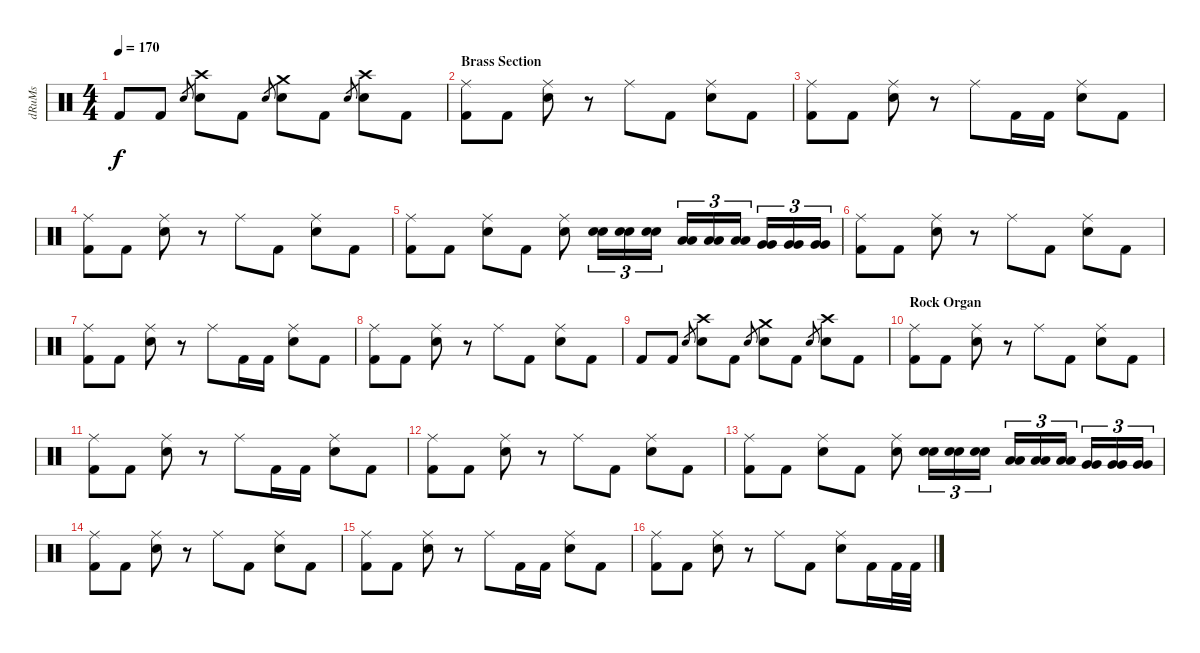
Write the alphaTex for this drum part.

\track ("dRuMs" "dRuMs") {instrument percussion}
\staff {score}
\articulation defaults
\ts (4 4)
\tempo 170
\clef neutral
\ks c "Kick (hit) 2".8{dy f} "Kick (hit) 2".8 "Electric Snare (hit)".8{gr}
("Crash high (hit)" "Electric Snare (hit)").8 "Kick (hit) 2".8 "Electric Snare (hit)".8{gr} ("Crash medium (hit)" "Electric Snare (hit)").8 "Kick (hit) 2".8 "Electric Snare (hit)".8{gr} ("Crash high (hit)" "Electric Snare (hit)").8 "Kick (hit) 2".8 |
\section ("" "Brass Section")
("Ride (middle)" "Kick (hit) 2").8 "Kick (hit) 2".8 ("Ride (middle)" "Electric Snare (hit)").8 r.8 "Ride (middle)".8 "Kick (hit) 2".8 ("Ride (middle)" "Electric Snare (hit)").8 "Kick (hit) 2".8 |
("Ride (middle)" "Kick (hit) 2").8 "Kick (hit) 2".8 ("Ride (middle)" "Electric Snare (hit)").8 r.8 "Ride (middle)".8 "Kick (hit) 2".16 "Kick (hit) 2".16 ("Ride (middle)" "Electric Snare (hit)").8 "Kick (hit) 2".8 |
("Ride (middle)" "Kick (hit) 2").8 "Kick (hit) 2".8 ("Ride (middle)" "Electric Snare (hit)").8 r.8 "Ride (middle)".8 "Kick (hit) 2".8 ("Ride (middle)" "Electric Snare (hit)").8 "Kick (hit) 2".8 |
("Ride (middle)" "Kick (hit) 2").8 "Kick (hit) 2".8 ("Ride (middle)" "Electric Snare (hit)").8 "Kick (hit) 2".8 ("Ride (middle)" "Electric Snare (hit)").8 ("Electric Snare (hit)" "Electric Snare (hit)").16{tu (3 2)} ("Electric Snare (hit)" "Electric Snare (hit)").16{tu (3 2)} ("Electric Snare (hit)" "Electric Snare (hit)").16{tu (3 2)} ("Low Tom (hit)" "Low Tom (hit)").16{tu (3 2)} ("Low Tom (hit)" "Low Tom (hit)").16{tu (3 2)} ("Low Tom (hit)" "Low Tom (hit)").16{tu (3 2)} ("Very Low Tom (hit)" "Very Low Tom (hit)").16{tu (3 2)} ("Very Low Tom (hit)" "Very Low Tom (hit)").16{tu (3 2)} ("Very Low Tom (hit)" "Very Low Tom (hit)").16{tu (3 2)} |
("Ride (middle)" "Kick (hit) 2").8 "Kick (hit) 2".8 ("Ride (middle)" "Electric Snare (hit)").8 r.8 "Ride (middle)".8 "Kick (hit) 2".8 ("Ride (middle)" "Electric Snare (hit)").8 "Kick (hit) 2".8 |
("Ride (middle)" "Kick (hit) 2").8 "Kick (hit) 2".8 ("Ride (middle)" "Electric Snare (hit)").8 r.8 "Ride (middle)".8 "Kick (hit) 2".16 "Kick (hit) 2".16 ("Ride (middle)" "Electric Snare (hit)").8 "Kick (hit) 2".8 |
("Ride (middle)" "Kick (hit) 2").8 "Kick (hit) 2".8 ("Ride (middle)" "Electric Snare (hit)").8 r.8 "Ride (middle)".8 "Kick (hit) 2".8 ("Ride (middle)" "Electric Snare (hit)").8 "Kick (hit) 2".8 |
"Kick (hit) 2".8 "Kick (hit) 2".8 "Electric Snare (hit)".8{gr} ("Crash high (hit)" "Electric Snare (hit)").8 "Kick (hit) 2".8 "Electric Snare (hit)".8{gr} ("Crash medium (hit)" "Electric Snare (hit)").8 "Kick (hit) 2".8 "Electric Snare (hit)".8{gr} ("Crash high (hit)" "Electric Snare (hit)").8 "Kick (hit) 2".8 |
\section ("" "Rock Organ")
("Ride (middle)" "Kick (hit) 2").8 "Kick (hit) 2".8 ("Ride (middle)" "Electric Snare (hit)").8 r.8 "Ride (middle)".8 "Kick (hit) 2".8 ("Ride (middle)" "Electric Snare (hit)").8 "Kick (hit) 2".8 |
("Ride (middle)" "Kick (hit) 2").8 "Kick (hit) 2".8 ("Ride (middle)" "Electric Snare (hit)").8 r.8 "Ride (middle)".8 "Kick (hit) 2".16 "Kick (hit) 2".16 ("Ride (middle)" "Electric Snare (hit)").8 "Kick (hit) 2".8 |
("Ride (middle)" "Kick (hit) 2").8 "Kick (hit) 2".8 ("Ride (middle)" "Electric Snare (hit)").8 r.8 "Ride (middle)".8 "Kick (hit) 2".8 ("Ride (middle)" "Electric Snare (hit)").8 "Kick (hit) 2".8 |
("Ride (middle)" "Kick (hit) 2").8 "Kick (hit) 2".8 ("Ride (middle)" "Electric Snare (hit)").8 "Kick (hit) 2".8 ("Ride (middle)" "Electric Snare (hit)").8 ("Electric Snare (hit)" "Electric Snare (hit)").16{tu (3 2)} ("Electric Snare (hit)" "Electric Snare (hit)").16{tu (3 2)} ("Electric Snare (hit)" "Electric Snare (hit)").16{tu (3 2)} ("Low Tom (hit)" "Low Tom (hit)").16{tu (3 2)} ("Low Tom (hit)" "Low Tom (hit)").16{tu (3 2)} ("Low Tom (hit)" "Low Tom (hit)").16{tu (3 2)} ("Very Low Tom (hit)" "Very Low Tom (hit)").16{tu (3 2)} ("Very Low Tom (hit)" "Very Low Tom (hit)").16{tu (3 2)} ("Very Low Tom (hit)" "Very Low Tom (hit)").16{tu (3 2)} |
("Ride (middle)" "Kick (hit) 2").8 "Kick (hit) 2".8 ("Ride (middle)" "Electric Snare (hit)").8 r.8 "Ride (middle)".8 "Kick (hit) 2".8 ("Ride (middle)" "Electric Snare (hit)").8 "Kick (hit) 2".8 |
("Ride (middle)" "Kick (hit) 2").8 "Kick (hit) 2".8 ("Ride (middle)" "Electric Snare (hit)").8 r.8 "Ride (middle)".8 "Kick (hit) 2".16 "Kick (hit) 2".16 ("Ride (middle)" "Electric Snare (hit)").8 "Kick (hit) 2".8 |
("Ride (middle)" "Kick (hit) 2").8 "Kick (hit) 2".8 ("Ride (middle)" "Electric Snare (hit)").8 r.8 "Ride (middle)".8 "Kick (hit) 2".8 ("Ride (middle)" "Electric Snare (hit)").8 "Kick (hit) 2".16 "Kick (hit) 2".32 "Kick (hit) 2".32
